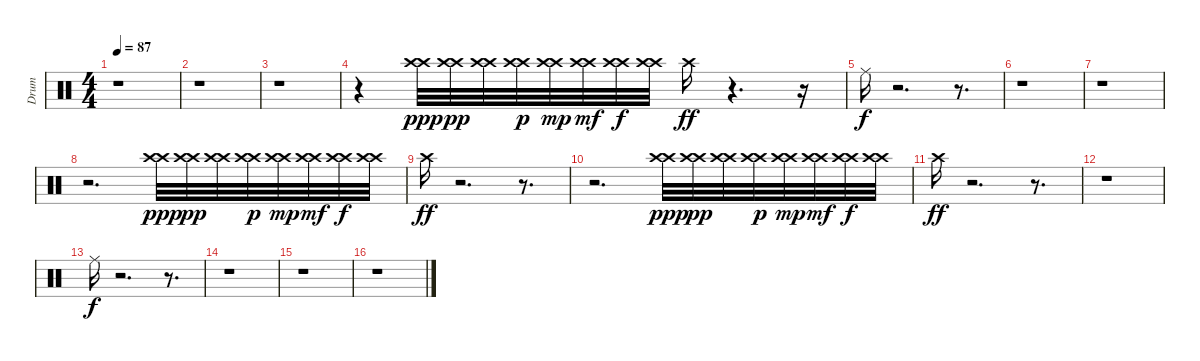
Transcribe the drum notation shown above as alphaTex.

\track ("Drum" "Drum") {instrument percussion}
\staff {score}
\articulation defaults
\ts (4 4)
\tempo 87
\clef neutral
\ks c
r.1{dy ff} |
r.1 |
r.1 |
r.4 ("Crash high (hit)" "Crash high (hit)").32{dy ppp} ("Crash high (hit)" "Crash high (hit)").32{dy pp} ("Crash high (hit)" "Crash high (hit)").32 ("Crash high (hit)" "Crash high (hit)").32{dy p} ("Crash high (hit)" "Crash high (hit)").32{dy mp} ("Crash high (hit)" "Crash high (hit)").32{dy mf} ("Crash high (hit)" "Crash high (hit)").32{dy f} ("Crash high (hit)" "Crash high (hit)").32 "Crash high (hit)".16{dy ff} r.4{d} r.16 |
"Ride (middle)".16{dy f} r.2{d} r.8{d} |
r.1 |
r.1 |
r.2{d} ("Crash high (hit)" "Crash high (hit)").32{dy ppp} ("Crash high (hit)" "Crash high (hit)").32{dy pp} ("Crash high (hit)" "Crash high (hit)").32 ("Crash high (hit)" "Crash high (hit)").32{dy p} ("Crash high (hit)" "Crash high (hit)").32{dy mp} ("Crash high (hit)" "Crash high (hit)").32{dy mf} ("Crash high (hit)" "Crash high (hit)").32{dy f} ("Crash high (hit)" "Crash high (hit)").32 |
"Crash high (hit)".16{dy ff} r.2{d} r.8{d} |
r.2{d} ("Crash high (hit)" "Crash high (hit)").32{dy ppp} ("Crash high (hit)" "Crash high (hit)").32{dy pp} ("Crash high (hit)" "Crash high (hit)").32 ("Crash high (hit)" "Crash high (hit)").32{dy p} ("Crash high (hit)" "Crash high (hit)").32{dy mp} ("Crash high (hit)" "Crash high (hit)").32{dy mf} ("Crash high (hit)" "Crash high (hit)").32{dy f} ("Crash high (hit)" "Crash high (hit)").32 |
"Crash high (hit)".16{dy ff} r.2{d} r.8{d} |
r.1 |
"Ride (middle)".16{dy f} r.2{d} r.8{d} |
r.1 |
r.1 |
r.1
